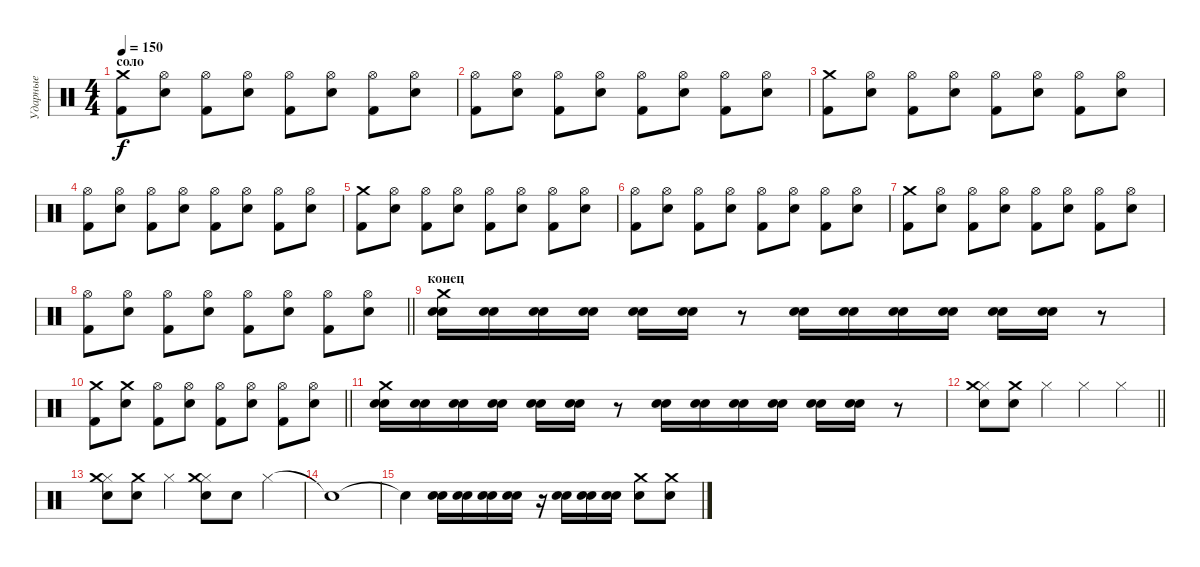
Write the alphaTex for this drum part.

\track ("Ударные" "Ударные") {instrument percussion}
\staff {score}
\articulation defaults
\ts (4 4)
\section ("" "соло")
\tempo 150
\clef neutral
\ks c
("Kick (hit) 2" "Crash medium (hit)").8{dy f} ("Electric Snare (hit)" "Hi-Hat (open)").8 ("Kick (hit) 2" "Hi-Hat (open)").8 ("Electric Snare (hit)" "Hi-Hat (open)").8 ("Kick (hit) 2" "Hi-Hat (open)").8 ("Electric Snare (hit)" "Hi-Hat (open)").8 ("Kick (hit) 2" "Hi-Hat (open)").8 ("Electric Snare (hit)" "Hi-Hat (open)").8 |
("Kick (hit) 2" "Hi-Hat (open)").8 ("Electric Snare (hit)" "Hi-Hat (open)").8 ("Kick (hit) 2" "Hi-Hat (open)").8 ("Electric Snare (hit)" "Hi-Hat (open)").8 ("Kick (hit) 2" "Hi-Hat (open)").8 ("Electric Snare (hit)" "Hi-Hat (open)").8 ("Kick (hit) 2" "Hi-Hat (open)").8 ("Electric Snare (hit)" "Hi-Hat (open)").8 |
("Kick (hit) 2" "Crash medium (hit)").8 ("Electric Snare (hit)" "Hi-Hat (open)").8 ("Kick (hit) 2" "Hi-Hat (open)").8 ("Electric Snare (hit)" "Hi-Hat (open)").8 ("Kick (hit) 2" "Hi-Hat (open)").8 ("Electric Snare (hit)" "Hi-Hat (open)").8 ("Kick (hit) 2" "Hi-Hat (open)").8 ("Electric Snare (hit)" "Hi-Hat (open)").8 |
("Kick (hit) 2" "Hi-Hat (open)").8 ("Electric Snare (hit)" "Hi-Hat (open)").8 ("Kick (hit) 2" "Hi-Hat (open)").8 ("Electric Snare (hit)" "Hi-Hat (open)").8 ("Kick (hit) 2" "Hi-Hat (open)").8 ("Electric Snare (hit)" "Hi-Hat (open)").8 ("Kick (hit) 2" "Hi-Hat (open)").8 ("Electric Snare (hit)" "Hi-Hat (open)").8 |
("Kick (hit) 2" "Crash medium (hit)").8 ("Electric Snare (hit)" "Hi-Hat (open)").8 ("Kick (hit) 2" "Hi-Hat (open)").8 ("Electric Snare (hit)" "Hi-Hat (open)").8 ("Kick (hit) 2" "Hi-Hat (open)").8 ("Electric Snare (hit)" "Hi-Hat (open)").8 ("Kick (hit) 2" "Hi-Hat (open)").8 ("Electric Snare (hit)" "Hi-Hat (open)").8 |
("Kick (hit) 2" "Hi-Hat (open)").8 ("Electric Snare (hit)" "Hi-Hat (open)").8 ("Kick (hit) 2" "Hi-Hat (open)").8 ("Electric Snare (hit)" "Hi-Hat (open)").8 ("Kick (hit) 2" "Hi-Hat (open)").8 ("Electric Snare (hit)" "Hi-Hat (open)").8 ("Kick (hit) 2" "Hi-Hat (open)").8 ("Electric Snare (hit)" "Hi-Hat (open)").8 |
("Kick (hit) 2" "Crash medium (hit)").8 ("Electric Snare (hit)" "Hi-Hat (open)").8 ("Kick (hit) 2" "Hi-Hat (open)").8 ("Electric Snare (hit)" "Hi-Hat (open)").8 ("Kick (hit) 2" "Hi-Hat (open)").8 ("Electric Snare (hit)" "Hi-Hat (open)").8 ("Kick (hit) 2" "Hi-Hat (open)").8 ("Electric Snare (hit)" "Hi-Hat (open)").8 |
\barLineRight lightlight
("Kick (hit) 2" "Hi-Hat (open)").8 ("Electric Snare (hit)" "Hi-Hat (open)").8 ("Kick (hit) 2" "Hi-Hat (open)").8 ("Electric Snare (hit)" "Hi-Hat (open)").8 ("Kick (hit) 2" "Hi-Hat (open)").8 ("Electric Snare (hit)" "Hi-Hat (open)").8 ("Kick (hit) 2" "Hi-Hat (open)").8 ("Electric Snare (hit)" "Hi-Hat (open)").8 |
\section ("" "конец")
("Electric Snare (hit)" "Snare (hit) 2" "Crash medium (hit)").16 ("Electric Snare (hit)" "Snare (hit) 2").16 ("Electric Snare (hit)" "Snare (hit) 2").16 ("Electric Snare (hit)" "Snare (hit) 2").16 ("Electric Snare (hit)" "Snare (hit) 2").16 ("Electric Snare (hit)" "Snare (hit) 2").16 r.8 ("Electric Snare (hit)" "Snare (hit) 2").16 ("Electric Snare (hit)" "Snare (hit) 2").16 ("Electric Snare (hit)" "Snare (hit) 2").16 ("Electric Snare (hit)" "Snare (hit) 2").16 ("Electric Snare (hit)" "Snare (hit) 2").16 ("Electric Snare (hit)" "Snare (hit) 2").16 r.8 |
\barLineRight lightlight
("Kick (hit) 2" "Crash medium (hit)").8 ("Electric Snare (hit)" "Crash medium (hit)").8 ("Kick (hit) 2" "Hi-Hat (open)").8 ("Electric Snare (hit)" "Hi-Hat (open)").8 ("Kick (hit) 2" "Hi-Hat (open)").8 ("Electric Snare (hit)" "Hi-Hat (open)").8 ("Kick (hit) 2" "Hi-Hat (open)").8 ("Electric Snare (hit)" "Hi-Hat (open)").8 |
("Electric Snare (hit)" "Snare (hit) 2" "Crash medium (hit)").16 ("Electric Snare (hit)" "Snare (hit) 2").16 ("Electric Snare (hit)" "Snare (hit) 2").16 ("Electric Snare (hit)" "Snare (hit) 2").16 ("Electric Snare (hit)" "Snare (hit) 2").16 ("Electric Snare (hit)" "Snare (hit) 2").16 r.8 ("Electric Snare (hit)" "Snare (hit) 2").16 ("Electric Snare (hit)" "Snare (hit) 2").16 ("Electric Snare (hit)" "Snare (hit) 2").16 ("Electric Snare (hit)" "Snare (hit) 2").16 ("Electric Snare (hit)" "Snare (hit) 2").16 ("Electric Snare (hit)" "Snare (hit) 2").16 r.8 |
\barLineRight lightlight
("Electric Snare (hit)" "Hi-Hat (closed)" "Crash medium (hit)").8 ("Electric Snare (hit)" "Crash medium (hit)").8 "Hi-Hat (closed)".4 "Hi-Hat (closed)".4 "Hi-Hat (closed)".4 |
("Electric Snare (hit)" "Hi-Hat (closed)" "Crash medium (hit)").8 ("Electric Snare (hit)" "Crash medium (hit)").8 "Hi-Hat (closed)".4 ("Electric Snare (hit)" "Hi-Hat (closed)" "Crash medium (hit)").8 "Electric Snare (hit)".8 "Hi-Hat (closed)".4 |
"Snare (hit)"{t}.1 |
"Snare (hit)"{t}.4 ("Electric Snare (hit)" "Snare (hit) 2").16 ("Electric Snare (hit)" "Snare (hit) 2").16 ("Electric Snare (hit)" "Snare (hit) 2").16 ("Electric Snare (hit)" "Snare (hit) 2").16 r.16 ("Electric Snare (hit)" "Snare (hit) 2").16 ("Electric Snare (hit)" "Snare (hit) 2").16 ("Electric Snare (hit)" "Snare (hit) 2").16 ("Electric Snare (hit)" "Crash medium (hit)").8 ("Electric Snare (hit)" "Crash medium (hit)").8
